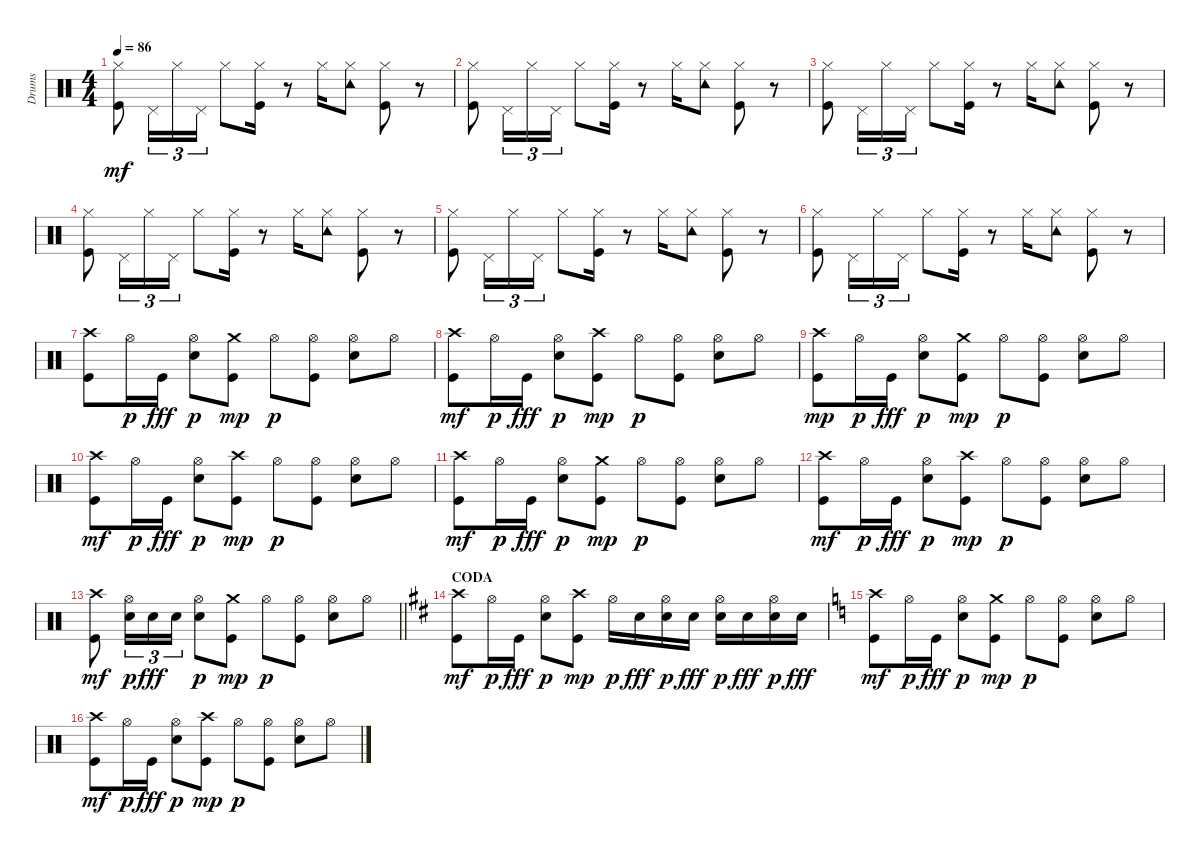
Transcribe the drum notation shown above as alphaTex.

\track ("Drums" "Drums") {instrument percussion}
\staff {score}
\articulation defaults
\ts (4 4)
\tempo 86
\clef neutral
\ks c
("Kick (hit)" "Hi-Hat (closed)").8{dy mf} "Pedal Hi-Hat (hit)".16{tu (3 2)} "Hi-Hat (closed)".16{tu (3 2)} "Pedal Hi-Hat (hit)".16{tu (3 2)} "Hi-Hat (closed)".8 ("Kick (hit)" "Hi-Hat (closed)").16 r.8 "Hi-Hat (closed)".16 ("Hi-Hat (closed)" "Tambourine (hit)").8 ("Kick (hit)" "Hi-Hat (closed)").8 r.8 |
("Kick (hit)" "Hi-Hat (closed)").8 "Pedal Hi-Hat (hit)".16{tu (3 2)} "Hi-Hat (closed)".16{tu (3 2)} "Pedal Hi-Hat (hit)".16{tu (3 2)} "Hi-Hat (closed)".8 ("Kick (hit)" "Hi-Hat (closed)").16 r.8 "Hi-Hat (closed)".16 ("Hi-Hat (closed)" "Tambourine (hit)").8 ("Kick (hit)" "Hi-Hat (closed)").8 r.8 |
("Kick (hit)" "Hi-Hat (closed)").8 "Pedal Hi-Hat (hit)".16{tu (3 2)} "Hi-Hat (closed)".16{tu (3 2)} "Pedal Hi-Hat (hit)".16{tu (3 2)} "Hi-Hat (closed)".8 ("Kick (hit)" "Hi-Hat (closed)").16 r.8 "Hi-Hat (closed)".16 ("Hi-Hat (closed)" "Tambourine (hit)").8 ("Kick (hit)" "Hi-Hat (closed)").8 r.8 |
("Kick (hit)" "Hi-Hat (closed)").8 "Pedal Hi-Hat (hit)".16{tu (3 2)} "Hi-Hat (closed)".16{tu (3 2)} "Pedal Hi-Hat (hit)".16{tu (3 2)} "Hi-Hat (closed)".8 ("Kick (hit)" "Hi-Hat (closed)").16 r.8 "Hi-Hat (closed)".16 ("Hi-Hat (closed)" "Tambourine (hit)").8 ("Kick (hit)" "Hi-Hat (closed)").8 r.8 |
("Kick (hit)" "Hi-Hat (closed)").8 "Pedal Hi-Hat (hit)".16{tu (3 2)} "Hi-Hat (closed)".16{tu (3 2)} "Pedal Hi-Hat (hit)".16{tu (3 2)} "Hi-Hat (closed)".8 ("Kick (hit)" "Hi-Hat (closed)").16 r.8 "Hi-Hat (closed)".16 ("Hi-Hat (closed)" "Tambourine (hit)").8 ("Kick (hit)" "Hi-Hat (closed)").8 r.8 |
("Kick (hit)" "Hi-Hat (closed)").8 "Pedal Hi-Hat (hit)".16{tu (3 2)} "Hi-Hat (closed)".16{tu (3 2)} "Pedal Hi-Hat (hit)".16{tu (3 2)} "Hi-Hat (closed)".8 ("Kick (hit)" "Hi-Hat (closed)").16 r.8 "Hi-Hat (closed)".16 ("Hi-Hat (closed)" "Tambourine (hit)").8 ("Kick (hit)" "Hi-Hat (closed)").8 r.8 |
("Kick (hit)" "Crash high (hit)").8 "Hi-Hat (open)".16{dy p} "Kick (hit)".16{dy fff} ("Electric Snare (hit)" "Hi-Hat (open)").8{dy p} ("Kick (hit)" "Crash medium (hit)").8{dy mp} "Hi-Hat (open)".8{dy p} ("Kick (hit)" "Hi-Hat (open)").8 ("Electric Snare (hit)" "Hi-Hat (open)").8 "Hi-Hat (open)".8 |
("Kick (hit)" "Crash high (hit)").8{dy mf} "Hi-Hat (open)".16{dy p} "Kick (hit)".16{dy fff} ("Electric Snare (hit)" "Hi-Hat (open)").8{dy p} ("Kick (hit)" "Crash high (hit)").8{dy mp} "Hi-Hat (open)".8{dy p} ("Kick (hit)" "Hi-Hat (open)").8 ("Electric Snare (hit)" "Hi-Hat (open)").8 "Hi-Hat (open)".8 |
("Kick (hit)" "Crash high (hit)").8{dy mp} "Hi-Hat (open)".16{dy p} "Kick (hit)".16{dy fff} ("Electric Snare (hit)" "Hi-Hat (open)").8{dy p} ("Kick (hit)" "Crash medium (hit)").8{dy mp} "Hi-Hat (open)".8{dy p} ("Kick (hit)" "Hi-Hat (open)").8 ("Electric Snare (hit)" "Hi-Hat (open)").8 "Hi-Hat (open)".8 |
("Kick (hit)" "Crash high (hit)").8{dy mf} "Hi-Hat (open)".16{dy p} "Kick (hit)".16{dy fff} ("Electric Snare (hit)" "Hi-Hat (open)").8{dy p} ("Kick (hit)" "Crash high (hit)").8{dy mp} "Hi-Hat (open)".8{dy p} ("Kick (hit)" "Hi-Hat (open)").8 ("Electric Snare (hit)" "Hi-Hat (open)").8 "Hi-Hat (open)".8 |
("Kick (hit)" "Crash high (hit)").8{dy mf} "Hi-Hat (open)".16{dy p} "Kick (hit)".16{dy fff} ("Electric Snare (hit)" "Hi-Hat (open)").8{dy p} ("Kick (hit)" "Crash medium (hit)").8{dy mp} "Hi-Hat (open)".8{dy p} ("Kick (hit)" "Hi-Hat (open)").8 ("Electric Snare (hit)" "Hi-Hat (open)").8 "Hi-Hat (open)".8 |
("Kick (hit)" "Crash high (hit)").8{dy mf} "Hi-Hat (open)".16{dy p} "Kick (hit)".16{dy fff} ("Electric Snare (hit)" "Hi-Hat (open)").8{dy p} ("Kick (hit)" "Crash high (hit)").8{dy mp} "Hi-Hat (open)".8{dy p} ("Kick (hit)" "Hi-Hat (open)").8 ("Electric Snare (hit)" "Hi-Hat (open)").8 "Hi-Hat (open)".8 |
\barLineRight lightlight
("Kick (hit)" "Crash high (hit)").8{dy mf} ("Electric Snare (hit)" "Hi-Hat (open)").16{tu (3 2) dy p} "Electric Snare (hit)".16{tu (3 2) dy fff} "Electric Snare (hit)".16{tu (3 2)} ("Electric Snare (hit)" "Hi-Hat (open)").8{dy p} ("Kick (hit)" "Crash medium (hit)").8{dy mp} "Hi-Hat (open)".8{dy p} ("Kick (hit)" "Hi-Hat (open)").8 ("Electric Snare (hit)" "Hi-Hat (open)").8 "Hi-Hat (open)".8 |
\section ("" "CODA")
\ks d
("Kick (hit)" "Crash high (hit)").8{dy mf} "Hi-Hat (open)".16{dy p} "Kick (hit)".16{dy fff} ("Electric Snare (hit)" "Hi-Hat (open)").8{dy p} ("Kick (hit)" "Crash high (hit)").8{dy mp} "Hi-Hat (open)".16{dy p} "Electric Snare (hit)".16{dy fff} ("Electric Snare (hit)" "Hi-Hat (open)").16{dy p} "Electric Snare (hit)".16{dy fff} ("Electric Snare (hit)" "Hi-Hat (open)").16{dy p} "Electric Snare (hit)".16{dy fff} ("Electric Snare (hit)" "Hi-Hat (open)").16{dy p} "Electric Snare (hit)".16{dy fff} |
\ks c
("Kick (hit)" "Crash high (hit)").8{dy mf} "Hi-Hat (open)".16{dy p} "Kick (hit)".16{dy fff} ("Electric Snare (hit)" "Hi-Hat (open)").8{dy p} ("Kick (hit)" "Crash medium (hit)").8{dy mp} "Hi-Hat (open)".8{dy p} ("Kick (hit)" "Hi-Hat (open)").8 ("Electric Snare (hit)" "Hi-Hat (open)").8 "Hi-Hat (open)".8 |
("Kick (hit)" "Crash high (hit)").8{dy mf} "Hi-Hat (open)".16{dy p} "Kick (hit)".16{dy fff} ("Electric Snare (hit)" "Hi-Hat (open)").8{dy p} ("Kick (hit)" "Crash high (hit)").8{dy mp} "Hi-Hat (open)".8{dy p} ("Kick (hit)" "Hi-Hat (open)").8 ("Electric Snare (hit)" "Hi-Hat (open)").8 "Hi-Hat (open)".8
